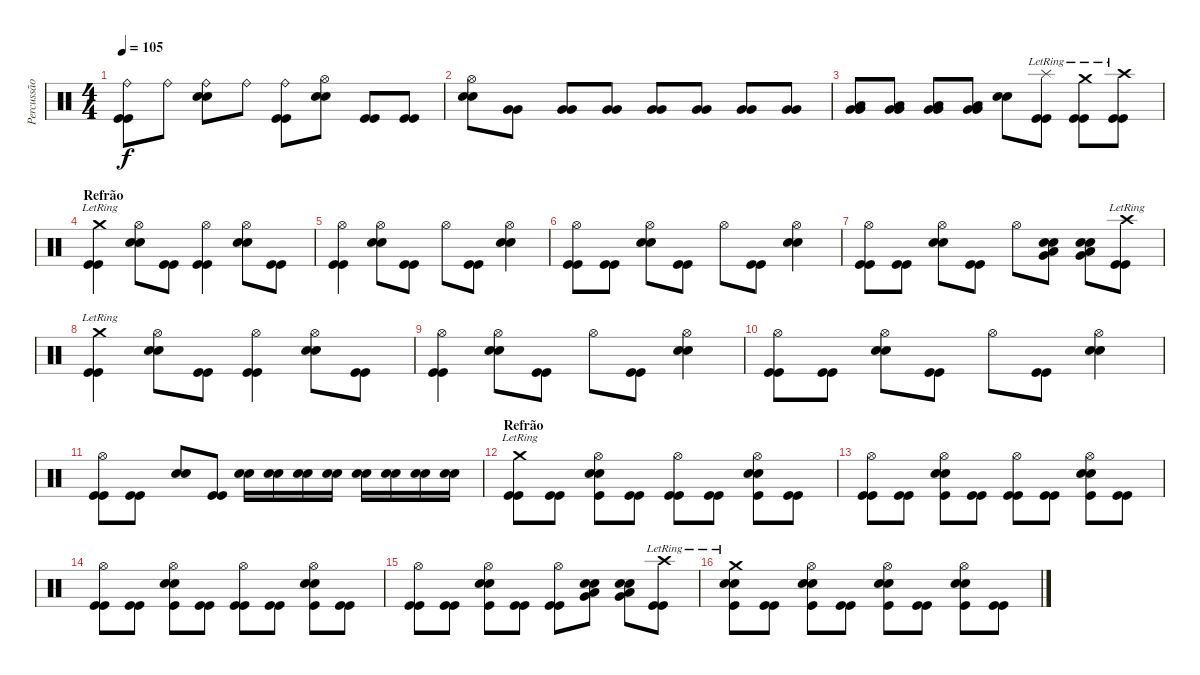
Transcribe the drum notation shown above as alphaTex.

\track ("Percussão" "Percussão") {instrument percussion}
\staff {score}
\articulation defaults
\ts (4 4)
\tempo 105
\clef neutral
\ks c
("Ride (bell)" "Kick (hit)" "Kick (hit)").8{dy f} "Ride (bell)".8 ("Ride (bell)" "Electric Snare (hit)" "Electric Snare (hit)").8 "Ride (bell)".8 ("Ride (bell)" "Kick (hit)" "Kick (hit)").8 ("Hi-Hat (open)" "Electric Snare (hit)" "Electric Snare (hit)").8 ("Kick (hit)" "Kick (hit)").8 ("Kick (hit)" "Kick (hit)").8 |
("Hi-Hat (open)" "Electric Snare (hit)" "Electric Snare (hit)").8 ("Very Low Tom (hit)" "Very Low Tom (hit)").8 ("Very Low Tom (hit)" "Very Low Tom (hit)").8 ("Very Low Tom (hit)" "Very Low Tom (hit)").8 ("Very Low Tom (hit)" "Very Low Tom (hit)").8 ("Very Low Tom (hit)" "Very Low Tom (hit)").8 ("Very Low Tom (hit)" "Very Low Tom (hit)").8 ("Very Low Tom (hit)" "Very Low Tom (hit)").8 |
("Low Tom (hit)" "Very Low Tom (hit)" "Very Low Tom (hit)").8 ("Low Tom (hit)" "Very Low Tom (hit)" "Very Low Tom (hit)").8 ("Low Tom (hit)" "Very Low Tom (hit)" "Very Low Tom (hit)").8 ("Low Tom (hit)" "Very Low Tom (hit)" "Very Low Tom (hit)").8 ("Electric Snare (hit)" "Electric Snare (hit)").8 ("Splash (hit)"{lr} "Kick (hit)" "Kick (hit)").8 ("Crash medium (hit)"{lr} "Kick (hit)" "Kick (hit)").8 ("Crash high (hit)"{lr} "Kick (hit)" "Kick (hit)").8 |
\section ("" "Refrão")
("Crash medium (hit)"{lr} "Kick (hit)" "Kick (hit)").4 ("Hi-Hat (open)" "Electric Snare (hit)" "Electric Snare (hit)").8 ("Kick (hit)" "Kick (hit)").8 ("Hi-Hat (open)" "Kick (hit)" "Kick (hit)").4 ("Hi-Hat (open)" "Electric Snare (hit)" "Electric Snare (hit)").8 ("Kick (hit)" "Kick (hit)").8 |
("Hi-Hat (open)" "Kick (hit)" "Kick (hit)").4 ("Hi-Hat (open)" "Electric Snare (hit)" "Electric Snare (hit)").8 ("Kick (hit)" "Kick (hit)").8 "Hi-Hat (open)".8 ("Kick (hit)" "Kick (hit)").8 ("Hi-Hat (open)" "Electric Snare (hit)" "Electric Snare (hit)").4 |
("Hi-Hat (open)" "Kick (hit)" "Kick (hit)").8 ("Kick (hit)" "Kick (hit)").8 ("Hi-Hat (open)" "Electric Snare (hit)" "Electric Snare (hit)").8 ("Kick (hit)" "Kick (hit)").8 "Hi-Hat (open)".8 ("Kick (hit)" "Kick (hit)").8 ("Hi-Hat (open)" "Electric Snare (hit)" "Electric Snare (hit)").4 |
("Hi-Hat (open)" "Kick (hit)" "Kick (hit)").8 ("Kick (hit)" "Kick (hit)").8 ("Hi-Hat (open)" "Electric Snare (hit)" "Electric Snare (hit)").8 ("Kick (hit)" "Kick (hit)").8 "Hi-Hat (open)".8 ("Low Tom (hit)" "Very Low Tom (hit)" "Electric Snare (hit)" "Electric Snare (hit)").8 ("Low Tom (hit)" "Very Low Tom (hit)" "Electric Snare (hit)" "Electric Snare (hit)").8 ("Crash high (hit)"{lr} "Kick (hit)" "Kick (hit)").8 |
("Crash medium (hit)"{lr} "Kick (hit)" "Kick (hit)").4 ("Hi-Hat (open)" "Electric Snare (hit)" "Electric Snare (hit)").8 ("Kick (hit)" "Kick (hit)").8 ("Hi-Hat (open)" "Kick (hit)" "Kick (hit)").4 ("Hi-Hat (open)" "Electric Snare (hit)" "Electric Snare (hit)").8 ("Kick (hit)" "Kick (hit)").8 |
("Hi-Hat (open)" "Kick (hit)" "Kick (hit)").4 ("Hi-Hat (open)" "Electric Snare (hit)" "Electric Snare (hit)").8 ("Kick (hit)" "Kick (hit)").8 "Hi-Hat (open)".8 ("Kick (hit)" "Kick (hit)").8 ("Hi-Hat (open)" "Electric Snare (hit)" "Electric Snare (hit)").4 |
("Hi-Hat (open)" "Kick (hit)" "Kick (hit)").8 ("Kick (hit)" "Kick (hit)").8 ("Hi-Hat (open)" "Electric Snare (hit)" "Electric Snare (hit)").8 ("Kick (hit)" "Kick (hit)").8 "Hi-Hat (open)".8 ("Kick (hit)" "Kick (hit)").8 ("Hi-Hat (open)" "Electric Snare (hit)" "Electric Snare (hit)").4 |
("Hi-Hat (open)" "Kick (hit)" "Kick (hit)").8 ("Kick (hit)" "Kick (hit)").8 ("Electric Snare (hit)" "Electric Snare (hit)").8 ("Kick (hit)" "Kick (hit)").8 ("Electric Snare (hit)" "Electric Snare (hit)").16 ("Electric Snare (hit)" "Electric Snare (hit)").16 ("Electric Snare (hit)" "Electric Snare (hit)").16 ("Electric Snare (hit)" "Electric Snare (hit)").16 ("Electric Snare (hit)" "Electric Snare (hit)").16 ("Electric Snare (hit)" "Electric Snare (hit)").16 ("Electric Snare (hit)" "Electric Snare (hit)").16 ("Electric Snare (hit)" "Electric Snare (hit)").16 |
\section ("" "Refrão")
("Crash medium (hit)"{lr} "Kick (hit)" "Kick (hit)").8 ("Kick (hit)" "Kick (hit)").8 ("Hi-Hat (open)" "Electric Snare (hit)" "Electric Snare (hit)" "Kick (hit)").8 ("Kick (hit)" "Kick (hit)").8 ("Hi-Hat (open)" "Kick (hit)" "Kick (hit)").8 ("Kick (hit)" "Kick (hit)").8 ("Hi-Hat (open)" "Electric Snare (hit)" "Electric Snare (hit)" "Kick (hit)").8 ("Kick (hit)" "Kick (hit)").8 |
("Hi-Hat (open)" "Kick (hit)" "Kick (hit)").8 ("Kick (hit)" "Kick (hit)").8 ("Hi-Hat (open)" "Electric Snare (hit)" "Electric Snare (hit)" "Kick (hit)").8 ("Kick (hit)" "Kick (hit)").8 ("Hi-Hat (open)" "Kick (hit)" "Kick (hit)").8 ("Kick (hit)" "Kick (hit)").8 ("Hi-Hat (open)" "Electric Snare (hit)" "Electric Snare (hit)" "Kick (hit)").8 ("Kick (hit)" "Kick (hit)").8 |
("Hi-Hat (open)" "Kick (hit)" "Kick (hit)").8 ("Kick (hit)" "Kick (hit)").8 ("Hi-Hat (open)" "Electric Snare (hit)" "Electric Snare (hit)" "Kick (hit)").8 ("Kick (hit)" "Kick (hit)").8 ("Hi-Hat (open)" "Kick (hit)" "Kick (hit)").8 ("Kick (hit)" "Kick (hit)").8 ("Hi-Hat (open)" "Electric Snare (hit)" "Electric Snare (hit)" "Kick (hit)").8 ("Kick (hit)" "Kick (hit)").8 |
("Hi-Hat (open)" "Kick (hit)" "Kick (hit)").8 ("Kick (hit)" "Kick (hit)").8 ("Hi-Hat (open)" "Electric Snare (hit)" "Electric Snare (hit)" "Kick (hit)").8 ("Kick (hit)" "Kick (hit)").8 ("Hi-Hat (open)" "Kick (hit)" "Kick (hit)").8 ("Low Tom (hit)" "Very Low Tom (hit)" "Electric Snare (hit)" "Electric Snare (hit)").8 ("Low Tom (hit)" "Very Low Tom (hit)" "Electric Snare (hit)" "Electric Snare (hit)").8 ("Crash high (hit)"{lr} "Kick (hit)" "Kick (hit)").8 |
("Crash medium (hit)"{lr} "Electric Snare (hit)" "Electric Snare (hit)" "Kick (hit)").8 ("Kick (hit)" "Kick (hit)").8 ("Hi-Hat (open)" "Electric Snare (hit)" "Electric Snare (hit)" "Kick (hit)").8 ("Kick (hit)" "Kick (hit)").8 ("Hi-Hat (open)" "Electric Snare (hit)" "Electric Snare (hit)" "Kick (hit)").8 ("Kick (hit)" "Kick (hit)").8 ("Hi-Hat (open)" "Electric Snare (hit)" "Electric Snare (hit)" "Kick (hit)").8 ("Kick (hit)" "Kick (hit)").8
